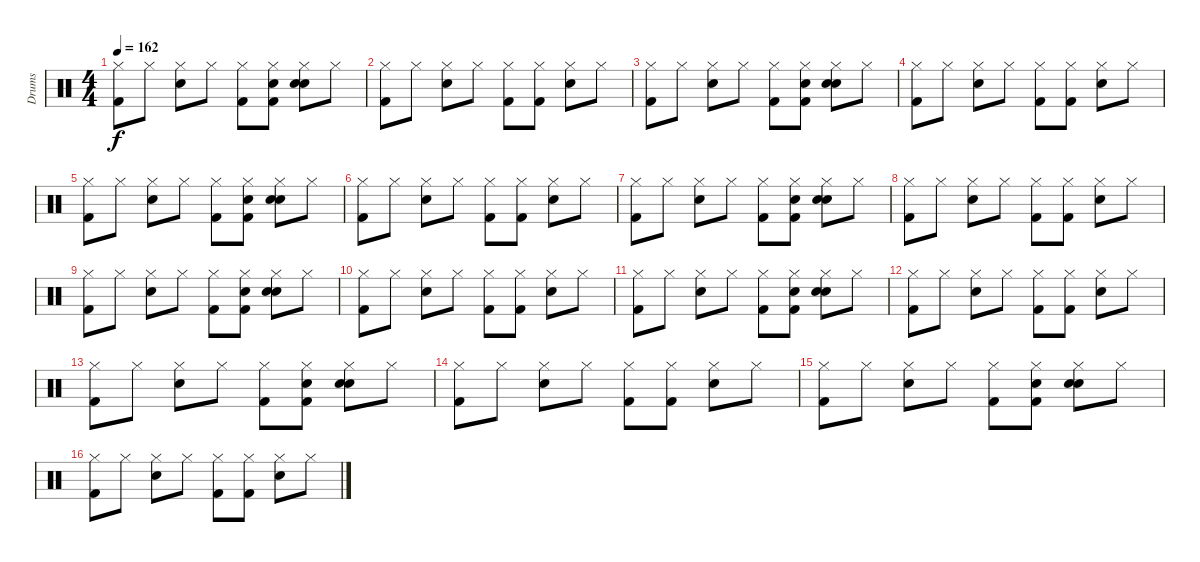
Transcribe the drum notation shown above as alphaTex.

\track ("Drums" "Drums") {instrument percussion}
\staff {score}
\articulation defaults
\ts (4 4)
\tempo 162
\clef neutral
\ks c
("Hi-Hat (closed)" "Kick (hit) 2").8{dy f} "Hi-Hat (closed)".8 ("Hi-Hat (closed)" "Snare (hit) 2").8 "Hi-Hat (closed)".8 ("Hi-Hat (closed)" "Kick (hit) 2").8 ("Hi-Hat (closed)" "Hand Clap (hit)" "Kick (hit) 2").8 ("Hi-Hat (closed)" "Snare (hit) 2" "Hand Clap (hit)").8 "Hi-Hat (closed)".8 |
("Hi-Hat (closed)" "Kick (hit) 2").8 "Hi-Hat (closed)".8 ("Hi-Hat (closed)" "Snare (hit) 2").8 "Hi-Hat (closed)".8 ("Hi-Hat (closed)" "Kick (hit) 2").8 ("Hi-Hat (closed)" "Kick (hit) 2").8 ("Hi-Hat (closed)" "Snare (hit) 2").8 "Hi-Hat (closed)".8 |
("Hi-Hat (closed)" "Kick (hit) 2").8 "Hi-Hat (closed)".8 ("Hi-Hat (closed)" "Snare (hit) 2").8 "Hi-Hat (closed)".8 ("Hi-Hat (closed)" "Kick (hit) 2").8 ("Hi-Hat (closed)" "Hand Clap (hit)" "Kick (hit) 2").8 ("Hi-Hat (closed)" "Snare (hit) 2" "Hand Clap (hit)").8 "Hi-Hat (closed)".8 |
("Hi-Hat (closed)" "Kick (hit) 2").8 "Hi-Hat (closed)".8 ("Hi-Hat (closed)" "Snare (hit) 2").8 "Hi-Hat (closed)".8 ("Hi-Hat (closed)" "Kick (hit) 2").8 ("Hi-Hat (closed)" "Kick (hit) 2").8 ("Hi-Hat (closed)" "Snare (hit) 2").8 "Hi-Hat (closed)".8 |
("Hi-Hat (closed)" "Kick (hit) 2").8 "Hi-Hat (closed)".8 ("Hi-Hat (closed)" "Snare (hit) 2").8 "Hi-Hat (closed)".8 ("Hi-Hat (closed)" "Kick (hit) 2").8 ("Hi-Hat (closed)" "Hand Clap (hit)" "Kick (hit) 2").8 ("Hi-Hat (closed)" "Snare (hit) 2" "Hand Clap (hit)").8 "Hi-Hat (closed)".8 |
("Hi-Hat (closed)" "Kick (hit) 2").8 "Hi-Hat (closed)".8 ("Hi-Hat (closed)" "Snare (hit) 2").8 "Hi-Hat (closed)".8 ("Hi-Hat (closed)" "Kick (hit) 2").8 ("Hi-Hat (closed)" "Kick (hit) 2").8 ("Hi-Hat (closed)" "Snare (hit) 2").8 "Hi-Hat (closed)".8 |
("Hi-Hat (closed)" "Kick (hit) 2").8 "Hi-Hat (closed)".8 ("Hi-Hat (closed)" "Snare (hit) 2").8 "Hi-Hat (closed)".8 ("Hi-Hat (closed)" "Kick (hit) 2").8 ("Hi-Hat (closed)" "Hand Clap (hit)" "Kick (hit) 2").8 ("Hi-Hat (closed)" "Snare (hit) 2" "Hand Clap (hit)").8 "Hi-Hat (closed)".8 |
("Hi-Hat (closed)" "Kick (hit) 2").8 "Hi-Hat (closed)".8 ("Hi-Hat (closed)" "Snare (hit) 2").8 "Hi-Hat (closed)".8 ("Hi-Hat (closed)" "Kick (hit) 2").8 ("Hi-Hat (closed)" "Kick (hit) 2").8 ("Hi-Hat (closed)" "Snare (hit) 2").8 "Hi-Hat (closed)".8 |
("Hi-Hat (closed)" "Kick (hit) 2").8 "Hi-Hat (closed)".8 ("Hi-Hat (closed)" "Snare (hit) 2").8 "Hi-Hat (closed)".8 ("Hi-Hat (closed)" "Kick (hit) 2").8 ("Hi-Hat (closed)" "Hand Clap (hit)" "Kick (hit) 2").8 ("Hi-Hat (closed)" "Snare (hit) 2" "Hand Clap (hit)").8 "Hi-Hat (closed)".8 |
("Hi-Hat (closed)" "Kick (hit) 2").8 "Hi-Hat (closed)".8 ("Hi-Hat (closed)" "Snare (hit) 2").8 "Hi-Hat (closed)".8 ("Hi-Hat (closed)" "Kick (hit) 2").8 ("Hi-Hat (closed)" "Kick (hit) 2").8 ("Hi-Hat (closed)" "Snare (hit) 2").8 "Hi-Hat (closed)".8 |
("Hi-Hat (closed)" "Kick (hit) 2").8 "Hi-Hat (closed)".8 ("Hi-Hat (closed)" "Snare (hit) 2").8 "Hi-Hat (closed)".8 ("Hi-Hat (closed)" "Kick (hit) 2").8 ("Hi-Hat (closed)" "Hand Clap (hit)" "Kick (hit) 2").8 ("Hi-Hat (closed)" "Snare (hit) 2" "Hand Clap (hit)").8 "Hi-Hat (closed)".8 |
("Hi-Hat (closed)" "Kick (hit) 2").8 "Hi-Hat (closed)".8 ("Hi-Hat (closed)" "Snare (hit) 2").8 "Hi-Hat (closed)".8 ("Hi-Hat (closed)" "Kick (hit) 2").8 ("Hi-Hat (closed)" "Kick (hit) 2").8 ("Hi-Hat (closed)" "Snare (hit) 2").8 "Hi-Hat (closed)".8 |
("Hi-Hat (closed)" "Kick (hit) 2").8 "Hi-Hat (closed)".8 ("Hi-Hat (closed)" "Snare (hit) 2").8 "Hi-Hat (closed)".8 ("Hi-Hat (closed)" "Kick (hit) 2").8 ("Hi-Hat (closed)" "Hand Clap (hit)" "Kick (hit) 2").8 ("Hi-Hat (closed)" "Snare (hit) 2" "Hand Clap (hit)").8 "Hi-Hat (closed)".8 |
("Hi-Hat (closed)" "Kick (hit) 2").8 "Hi-Hat (closed)".8 ("Hi-Hat (closed)" "Snare (hit) 2").8 "Hi-Hat (closed)".8 ("Hi-Hat (closed)" "Kick (hit) 2").8 ("Hi-Hat (closed)" "Kick (hit) 2").8 ("Hi-Hat (closed)" "Snare (hit) 2").8 "Hi-Hat (closed)".8 |
("Hi-Hat (closed)" "Kick (hit) 2").8 "Hi-Hat (closed)".8 ("Hi-Hat (closed)" "Snare (hit) 2").8 "Hi-Hat (closed)".8 ("Hi-Hat (closed)" "Kick (hit) 2").8 ("Hi-Hat (closed)" "Hand Clap (hit)" "Kick (hit) 2").8 ("Hi-Hat (closed)" "Snare (hit) 2" "Hand Clap (hit)").8 "Hi-Hat (closed)".8 |
("Hi-Hat (closed)" "Kick (hit) 2").8 "Hi-Hat (closed)".8 ("Hi-Hat (closed)" "Snare (hit) 2").8 "Hi-Hat (closed)".8 ("Hi-Hat (closed)" "Kick (hit) 2").8 ("Hi-Hat (closed)" "Kick (hit) 2").8 ("Hi-Hat (closed)" "Snare (hit) 2").8 "Hi-Hat (closed)".8
